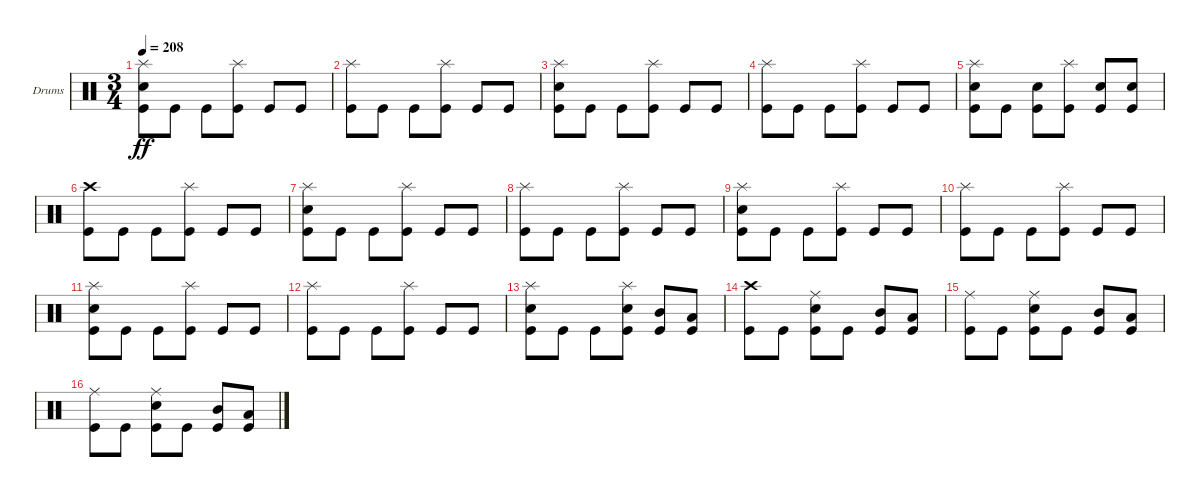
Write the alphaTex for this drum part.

\bracketExtendMode groupsimilarinstruments
\firstSystemTrackNameOrientation horizontal
\otherSystemsTrackNameOrientation horizontal
\track ("Drumkit" "Drums") {instrument percussion}
\staff {score}
\articulation defaults
\ts (3 4)
\tempo 208
\clef neutral
\ks c
("Splash (hit)" "Snare (hit) 2" "Kick (hit)").8{dy ff} "Kick (hit)".8 "Kick (hit)".8 ("Splash (hit)" "Kick (hit)").8 "Kick (hit)".8 "Kick (hit)".8 |
("Splash (hit)" "Kick (hit)").8 "Kick (hit)".8 "Kick (hit)".8 ("Splash (hit)" "Kick (hit)").8 "Kick (hit)".8 "Kick (hit)".8 |
("Splash (hit)" "Snare (hit) 2" "Kick (hit)").8 "Kick (hit)".8 "Kick (hit)".8 ("Splash (hit)" "Kick (hit)").8 "Kick (hit)".8 "Kick (hit)".8 |
("Splash (hit)" "Kick (hit)").8 "Kick (hit)".8 "Kick (hit)".8 ("Splash (hit)" "Kick (hit)").8 "Kick (hit)".8 "Kick (hit)".8 |
("Splash (hit)" "Snare (hit) 2" "Kick (hit)").8 "Kick (hit)".8 ("Snare (hit) 2" "Kick (hit)").8 ("Splash (hit)" "Kick (hit)").8 ("Snare (hit) 2" "Kick (hit)").8 ("Snare (hit) 2" "Kick (hit)").8 |
("Crash high (hit)" "Kick (hit)").8 "Kick (hit)".8 "Kick (hit)".8 ("Splash (hit)" "Kick (hit)").8 "Kick (hit)".8 "Kick (hit)".8 |
("Splash (hit)" "Snare (hit) 2" "Kick (hit)").8 "Kick (hit)".8 "Kick (hit)".8 ("Splash (hit)" "Kick (hit)").8 "Kick (hit)".8 "Kick (hit)".8 |
("Splash (hit)" "Kick (hit)").8 "Kick (hit)".8 "Kick (hit)".8 ("Splash (hit)" "Kick (hit)").8 "Kick (hit)".8 "Kick (hit)".8 |
("Splash (hit)" "Snare (hit) 2" "Kick (hit)").8 "Kick (hit)".8 "Kick (hit)".8 ("Splash (hit)" "Kick (hit)").8 "Kick (hit)".8 "Kick (hit)".8 |
("Splash (hit)" "Kick (hit)").8 "Kick (hit)".8 "Kick (hit)".8 ("Splash (hit)" "Kick (hit)").8 "Kick (hit)".8 "Kick (hit)".8 |
("Splash (hit)" "Snare (hit) 2" "Kick (hit)").8 "Kick (hit)".8 "Kick (hit)".8 ("Splash (hit)" "Kick (hit)").8 "Kick (hit)".8 "Kick (hit)".8 |
("Splash (hit)" "Kick (hit)").8 "Kick (hit)".8 "Kick (hit)".8 ("Splash (hit)" "Kick (hit)").8 "Kick (hit)".8 "Kick (hit)".8 |
("Splash (hit)" "Snare (hit) 2" "Kick (hit)").8 "Kick (hit)".8 "Kick (hit)".8 ("Splash (hit)" "Snare (hit) 2" "Kick (hit)").8 ("Mid Tom (hit)" "Kick (hit)").8 ("Low Tom (hit)" "Kick (hit)").8 |
("Crash high (hit)" "Kick (hit)").8 "Kick (hit)".8 ("Ride (middle)" "Snare (hit) 2" "Kick (hit)").8 "Kick (hit)".8 ("Mid Tom (hit)" "Kick (hit)").8 ("Low Tom (hit)" "Kick (hit)").8 |
("Ride (middle)" "Kick (hit)").8 "Kick (hit)".8 ("Ride (middle)" "Snare (hit) 2" "Kick (hit)").8 "Kick (hit)".8 ("Mid Tom (hit)" "Kick (hit)").8 ("Low Tom (hit)" "Kick (hit)").8 |
("Ride (middle)" "Kick (hit)").8 "Kick (hit)".8 ("Ride (middle)" "Snare (hit) 2" "Kick (hit)").8 "Kick (hit)".8 ("Mid Tom (hit)" "Kick (hit)").8 ("Low Tom (hit)" "Kick (hit)").8
